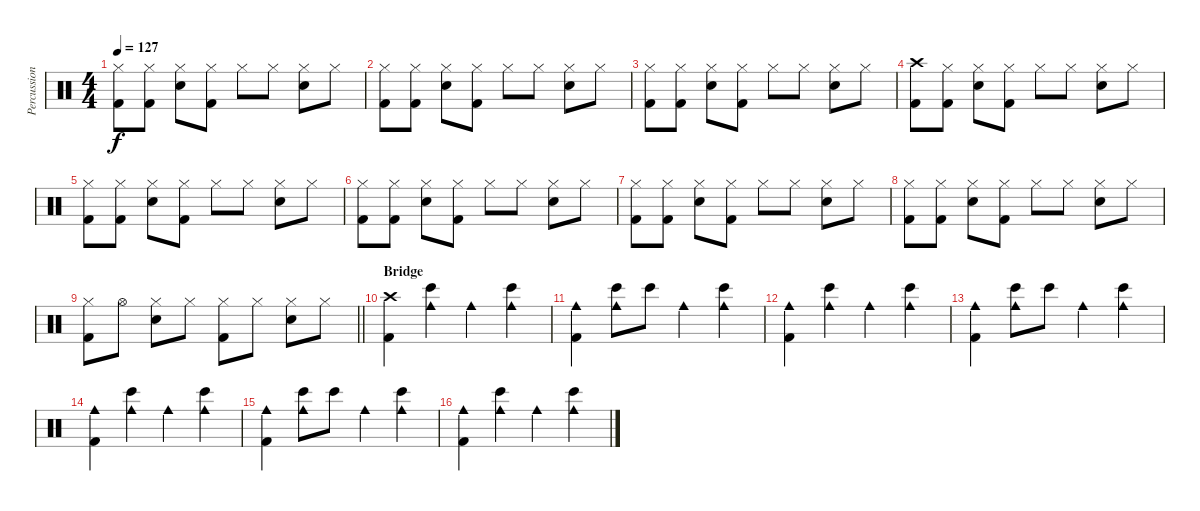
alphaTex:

\track ("Percussion" "Percussion") {instrument percussion}
\staff {score}
\articulation defaults
\ts (4 4)
\tempo 127
\clef neutral
\ks c
("Hi-Hat (closed)" "Kick (hit) 2").8{dy f} ("Hi-Hat (closed)" "Kick (hit) 2").8 ("Hi-Hat (closed)" "Snare (hit) 2").8 ("Hi-Hat (closed)" "Kick (hit) 2").8 "Hi-Hat (closed)".8 "Hi-Hat (closed)".8 ("Hi-Hat (closed)" "Snare (hit) 2").8 "Hi-Hat (closed)".8 |
("Hi-Hat (closed)" "Kick (hit) 2").8 ("Hi-Hat (closed)" "Kick (hit) 2").8 ("Hi-Hat (closed)" "Snare (hit) 2").8 ("Hi-Hat (closed)" "Kick (hit) 2").8 "Hi-Hat (closed)".8 "Hi-Hat (closed)".8 ("Hi-Hat (closed)" "Snare (hit) 2").8 "Hi-Hat (closed)".8 |
("Hi-Hat (closed)" "Kick (hit) 2").8 ("Hi-Hat (closed)" "Kick (hit) 2").8 ("Hi-Hat (closed)" "Snare (hit) 2").8 ("Hi-Hat (closed)" "Kick (hit) 2").8 "Hi-Hat (closed)".8 "Hi-Hat (closed)".8 ("Hi-Hat (closed)" "Snare (hit) 2").8 "Hi-Hat (closed)".8 |
("Crash high (hit)" "Kick (hit) 2").8 ("Hi-Hat (closed)" "Kick (hit) 2").8 ("Hi-Hat (closed)" "Snare (hit) 2").8 ("Hi-Hat (closed)" "Kick (hit) 2").8 "Hi-Hat (closed)".8 "Hi-Hat (closed)".8 ("Hi-Hat (closed)" "Snare (hit) 2").8 "Hi-Hat (closed)".8 |
("Hi-Hat (closed)" "Kick (hit) 2").8 ("Hi-Hat (closed)" "Kick (hit) 2").8 ("Hi-Hat (closed)" "Snare (hit) 2").8 ("Hi-Hat (closed)" "Kick (hit) 2").8 "Hi-Hat (closed)".8 "Hi-Hat (closed)".8 ("Hi-Hat (closed)" "Snare (hit) 2").8 "Hi-Hat (closed)".8 |
("Hi-Hat (closed)" "Kick (hit) 2").8 ("Hi-Hat (closed)" "Kick (hit) 2").8 ("Hi-Hat (closed)" "Snare (hit) 2").8 ("Hi-Hat (closed)" "Kick (hit) 2").8 "Hi-Hat (closed)".8 "Hi-Hat (closed)".8 ("Hi-Hat (closed)" "Snare (hit) 2").8 "Hi-Hat (closed)".8 |
("Hi-Hat (closed)" "Kick (hit) 2").8 ("Hi-Hat (closed)" "Kick (hit) 2").8 ("Hi-Hat (closed)" "Snare (hit) 2").8 ("Hi-Hat (closed)" "Kick (hit) 2").8 "Hi-Hat (closed)".8 "Hi-Hat (closed)".8 ("Hi-Hat (closed)" "Snare (hit) 2").8 "Hi-Hat (closed)".8 |
("Hi-Hat (closed)" "Kick (hit) 2").8 ("Hi-Hat (closed)" "Kick (hit) 2").8 ("Hi-Hat (closed)" "Snare (hit) 2").8 ("Hi-Hat (closed)" "Kick (hit) 2").8 "Hi-Hat (closed)".8 "Hi-Hat (closed)".8 ("Hi-Hat (closed)" "Snare (hit) 2").8 "Hi-Hat (closed)".8 |
\barLineRight lightlight
("Hi-Hat (closed)" "Kick (hit) 2").8 "Hi-Hat (open)".8 ("Hi-Hat (closed)" "Snare (hit) 2").8 "Hi-Hat (closed)".8 ("Hi-Hat (closed)" "Kick (hit) 2").8 "Hi-Hat (closed)".8 ("Hi-Hat (closed)" "Snare (hit) 2").8 "Hi-Hat (closed)".8 |
\section ("" "Bridge")
("Crash high (hit)" "Kick (hit) 2").4 ("Cowbell medium (hit)" "Bongo High (hit)").4 "Cowbell medium (hit)".4 ("Cowbell medium (hit)" "Bongo High (hit)").4 |
("Cowbell medium (hit)" "Kick (hit) 2").4 ("Cowbell medium (hit)" "Bongo High (hit)").8 "Bongo High (hit)".8 "Cowbell medium (hit)".4 ("Cowbell medium (hit)" "Bongo High (hit)").4 |
("Cowbell medium (hit)" "Kick (hit) 2").4 ("Cowbell medium (hit)" "Bongo High (hit)").4 "Cowbell medium (hit)".4 ("Cowbell medium (hit)" "Bongo High (hit)").4 |
("Cowbell medium (hit)" "Kick (hit) 2").4 ("Cowbell medium (hit)" "Bongo High (hit)").8 "Bongo High (hit)".8 "Cowbell medium (hit)".4 ("Cowbell medium (hit)" "Bongo High (hit)").4 |
("Cowbell medium (hit)" "Kick (hit) 2").4 ("Cowbell medium (hit)" "Bongo High (hit)").4 "Cowbell medium (hit)".4 ("Cowbell medium (hit)" "Bongo High (hit)").4 |
("Cowbell medium (hit)" "Kick (hit) 2").4 ("Cowbell medium (hit)" "Bongo High (hit)").8 "Bongo High (hit)".8 "Cowbell medium (hit)".4 ("Cowbell medium (hit)" "Bongo High (hit)").4 |
("Cowbell medium (hit)" "Kick (hit) 2").4 ("Cowbell medium (hit)" "Bongo High (hit)").4 "Cowbell medium (hit)".4 ("Cowbell medium (hit)" "Bongo High (hit)").4
